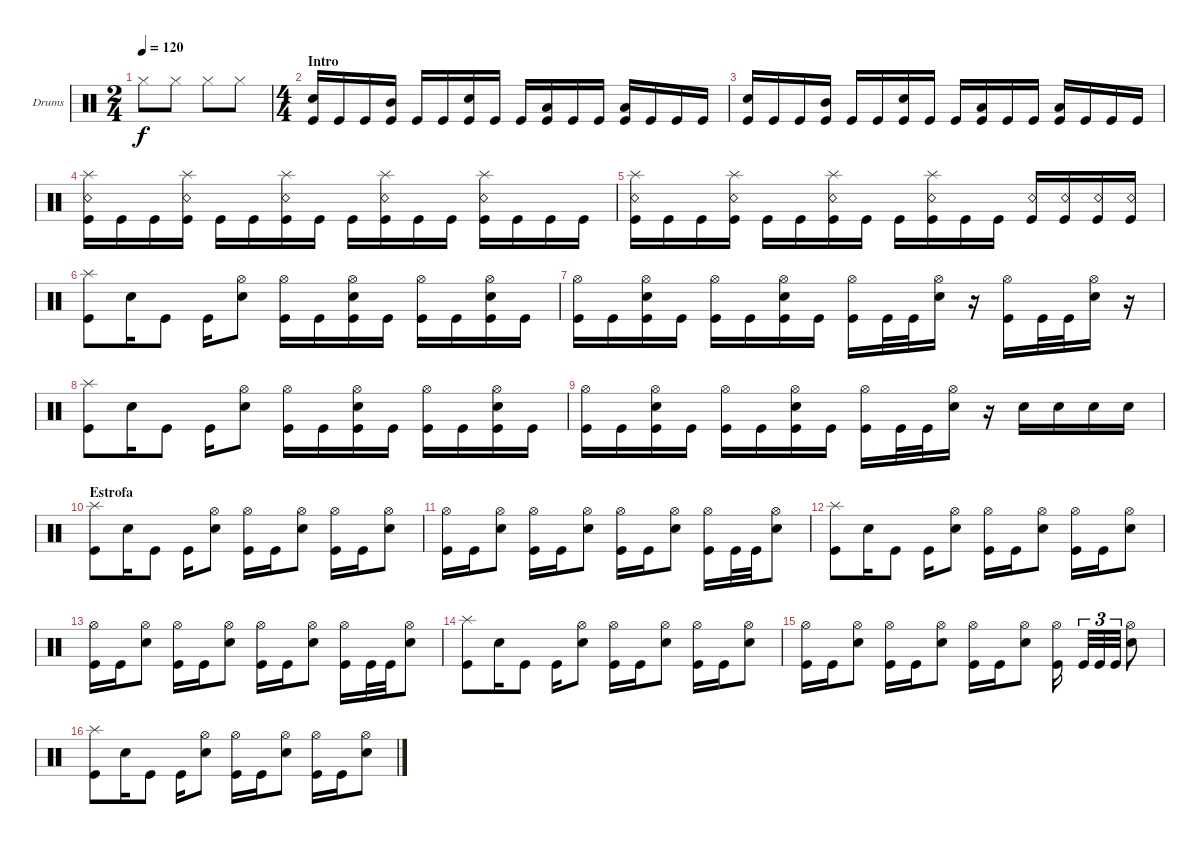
\bracketExtendMode groupsimilarinstruments
\firstSystemTrackNameOrientation horizontal
\otherSystemsTrackNameOrientation horizontal
\track ("Drumkit" "Drums") {instrument percussion}
\staff {score}
\articulation defaults
\ts (2 4)
\tempo 120
\clef neutral
\ks c "Hi-Hat (closed)".8{dy f} "Hi-Hat (closed)".8 "Hi-Hat (closed)".8 "Hi-Hat (closed)".8
|
\ts (4 4)
\section ("" "Intro")
("Snare (hit) 2" "Kick (hit)").16 "Kick (hit)".16 "Kick (hit)".16 ("Kick (hit)" "Mid Tom (hit)").16 "Kick (hit)".16 "Kick (hit)".16 ("Kick (hit)" "Snare (hit) 2").16 "Kick (hit)".16 "Kick (hit)".16 ("Kick (hit)" "Low Tom (hit)").16 "Kick (hit)".16 "Kick (hit)".16 ("Kick (hit)" "Low Tom (hit)").16 "Kick (hit)".16 "Kick (hit)".16 "Kick (hit)".16 |
("Snare (hit) 2" "Kick (hit)").16 "Kick (hit)".16 "Kick (hit)".16 ("Kick (hit)" "Mid Tom (hit)").16 "Kick (hit)".16 "Kick (hit)".16 ("Kick (hit)" "Snare (hit) 2").16 "Kick (hit)".16 "Kick (hit)".16 ("Kick (hit)" "Low Tom (hit)").16 "Kick (hit)".16 "Kick (hit)".16 ("Kick (hit)" "Low Tom (hit)").16 "Kick (hit)".16 "Kick (hit)".16 "Kick (hit)".16 |
("Snare (rim shot)" "Kick (hit)" "Splash (hit)").16 "Kick (hit)".16 "Kick (hit)".16 ("Kick (hit)" "Snare (rim shot)" "Splash (hit)").16 "Kick (hit)".16 "Kick (hit)".16 ("Kick (hit)" "Snare (rim shot)" "Splash (hit)").16 "Kick (hit)".16 "Kick (hit)".16 ("Kick (hit)" "Snare (rim shot)" "Splash (hit)").16 "Kick (hit)".16 "Kick (hit)".16 ("Kick (hit)" "Snare (rim shot)" "Splash (hit)").16 "Kick (hit)".16 "Kick (hit)".16 "Kick (hit)".16 |
("Snare (rim shot)" "Kick (hit)" "Splash (hit)").16 "Kick (hit)".16 "Kick (hit)".16 ("Kick (hit)" "Snare (rim shot)" "Splash (hit)").16 "Kick (hit)".16 "Kick (hit)".16 ("Kick (hit)" "Snare (rim shot)" "Splash (hit)").16 "Kick (hit)".16 "Kick (hit)".16 ("Kick (hit)" "Snare (rim shot)" "Splash (hit)").16 "Kick (hit)".16 "Kick (hit)".16 ("Kick (hit)" "Snare (rim shot)").16 ("Kick (hit)" "Snare (rim shot)").16 ("Kick (hit)" "Snare (rim shot)").16 ("Kick (hit)" "Snare (rim shot)").16 |
("Kick (hit)" "Splash (hit)").8 "Snare (hit) 2".16 "Kick (hit)".8 "Kick (hit)".16 ("Snare (hit) 2" "Hi-Hat (open)").8 ("Kick (hit)" "Hi-Hat (open)").16 "Kick (hit)".16 ("Kick (hit)" "Snare (hit) 2" "Hi-Hat (open)").16 "Kick (hit)".16 ("Kick (hit)" "Hi-Hat (open)").16 "Kick (hit)".16 ("Kick (hit)" "Snare (hit) 2" "Hi-Hat (open)").16 "Kick (hit)".16 |
("Kick (hit)" "Hi-Hat (open)").16 "Kick (hit)".16 ("Kick (hit)" "Snare (hit) 2" "Hi-Hat (open)").16 "Kick (hit)".16 ("Kick (hit)" "Hi-Hat (open)").16 "Kick (hit)".16 ("Kick (hit)" "Snare (hit) 2" "Hi-Hat (open)").16 "Kick (hit)".16 ("Kick (hit)" "Hi-Hat (open)").16 "Kick (hit)".32 "Kick (hit)".32 ("Snare (hit) 2" "Hi-Hat (open)").16 r.16 ("Kick (hit)" "Hi-Hat (open)").16 "Kick (hit)".32 "Kick (hit)".32 ("Snare (hit) 2" "Hi-Hat (open)").16 r.16 |
("Kick (hit)" "Splash (hit)").8 "Snare (hit) 2".16 "Kick (hit)".8 "Kick (hit)".16 ("Snare (hit) 2" "Hi-Hat (open)").8 ("Kick (hit)" "Hi-Hat (open)").16 "Kick (hit)".16 ("Kick (hit)" "Snare (hit) 2" "Hi-Hat (open)").16 "Kick (hit)".16 ("Kick (hit)" "Hi-Hat (open)").16 "Kick (hit)".16 ("Kick (hit)" "Snare (hit) 2" "Hi-Hat (open)").16 "Kick (hit)".16 |
("Kick (hit)" "Hi-Hat (open)").16 "Kick (hit)".16 ("Kick (hit)" "Snare (hit) 2" "Hi-Hat (open)").16 "Kick (hit)".16 ("Kick (hit)" "Hi-Hat (open)").16 "Kick (hit)".16 ("Kick (hit)" "Snare (hit) 2" "Hi-Hat (open)").16 "Kick (hit)".16 ("Kick (hit)" "Hi-Hat (open)").16 "Kick (hit)".32 "Kick (hit)".32 ("Snare (hit) 2" "Hi-Hat (open)").16 r.16 "Snare (hit) 2".16 "Snare (hit) 2".16 "Snare (hit) 2".16 "Snare (hit) 2".16 |
\section ("" "Estrofa")
("Kick (hit)" "Splash (hit)").8 "Snare (hit) 2".16 "Kick (hit)".8 "Kick (hit)".16 ("Snare (hit) 2" "Hi-Hat (open)").8 ("Kick (hit)" "Hi-Hat (open)").16 "Kick (hit)".16 ("Snare (hit) 2" "Hi-Hat (open)").8 ("Kick (hit)" "Hi-Hat (open)").16 "Kick (hit)".16 ("Snare (hit) 2" "Hi-Hat (open)").8 |
("Kick (hit)" "Hi-Hat (open)").16 "Kick (hit)".16 ("Snare (hit) 2" "Hi-Hat (open)").8 ("Kick (hit)" "Hi-Hat (open)").16 "Kick (hit)".16 ("Snare (hit) 2" "Hi-Hat (open)").8 ("Kick (hit)" "Hi-Hat (open)").16 "Kick (hit)".16 ("Snare (hit) 2" "Hi-Hat (open)").8 ("Kick (hit)" "Hi-Hat (open)").16 "Kick (hit)".32 "Kick (hit)".32 ("Snare (hit) 2" "Hi-Hat (open)").8 |
("Kick (hit)" "Splash (hit)").8 "Snare (hit) 2".16 "Kick (hit)".8 "Kick (hit)".16 ("Snare (hit) 2" "Hi-Hat (open)").8 ("Kick (hit)" "Hi-Hat (open)").16 "Kick (hit)".16 ("Snare (hit) 2" "Hi-Hat (open)").8 ("Kick (hit)" "Hi-Hat (open)").16 "Kick (hit)".16 ("Snare (hit) 2" "Hi-Hat (open)").8 |
("Kick (hit)" "Hi-Hat (open)").16 "Kick (hit)".16 ("Snare (hit) 2" "Hi-Hat (open)").8 ("Kick (hit)" "Hi-Hat (open)").16 "Kick (hit)".16 ("Snare (hit) 2" "Hi-Hat (open)").8 ("Kick (hit)" "Hi-Hat (open)").16 "Kick (hit)".16 ("Snare (hit) 2" "Hi-Hat (open)").8 ("Kick (hit)" "Hi-Hat (open)").16 "Kick (hit)".32 "Kick (hit)".32 ("Snare (hit) 2" "Hi-Hat (open)").8 |
("Kick (hit)" "Splash (hit)").8 "Snare (hit) 2".16 "Kick (hit)".8 "Kick (hit)".16 ("Snare (hit) 2" "Hi-Hat (open)").8 ("Kick (hit)" "Hi-Hat (open)").16 "Kick (hit)".16 ("Snare (hit) 2" "Hi-Hat (open)").8 ("Kick (hit)" "Hi-Hat (open)").16 "Kick (hit)".16 ("Snare (hit) 2" "Hi-Hat (open)").8 |
("Kick (hit)" "Hi-Hat (open)").16 "Kick (hit)".16 ("Snare (hit) 2" "Hi-Hat (open)").8 ("Kick (hit)" "Hi-Hat (open)").16 "Kick (hit)".16 ("Snare (hit) 2" "Hi-Hat (open)").8 ("Kick (hit)" "Hi-Hat (open)").16 "Kick (hit)".16 ("Snare (hit) 2" "Hi-Hat (open)").8 ("Kick (hit)" "Hi-Hat (open)").16 "Kick (hit)".32{tu (3 2)} "Kick (hit)".32{tu (3 2)} "Kick (hit)".32{tu (3 2)} ("Snare (hit) 2" "Hi-Hat (open)").8 |
("Kick (hit)" "Splash (hit)").8 "Snare (hit) 2".16 "Kick (hit)".8 "Kick (hit)".16 ("Snare (hit) 2" "Hi-Hat (open)").8 ("Kick (hit)" "Hi-Hat (open)").16 "Kick (hit)".16 ("Snare (hit) 2" "Hi-Hat (open)").8 ("Kick (hit)" "Hi-Hat (open)").16 "Kick (hit)".16 ("Snare (hit) 2" "Hi-Hat (open)").8
